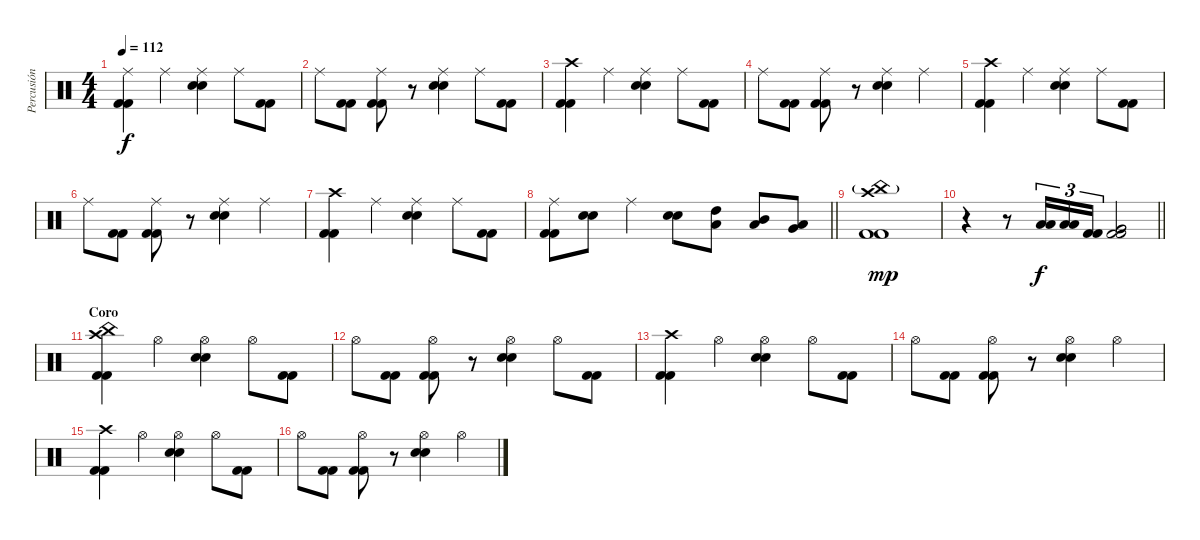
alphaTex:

\track ("Percusión" "Percusión") {instrument percussion}
\staff {score}
\articulation defaults
\ts (4 4)
\tempo 112
\clef neutral
\ks c
("Kick (hit) 2" "Ride (middle)" "Kick (hit) 2").4{dy f} "Ride (middle)".4 ("Ride (middle)" "Electric Snare (hit)" "Electric Snare (hit)").4 "Ride (middle)".8 ("Kick (hit) 2" "Kick (hit) 2").8 |
"Ride (middle)".8 ("Kick (hit) 2" "Kick (hit) 2").8 ("Kick (hit) 2" "Ride (middle)" "Kick (hit) 2").8 r.8 ("Electric Snare (hit)" "Electric Snare (hit)" "Ride (middle)").4 "Ride (middle)".8 ("Kick (hit) 2" "Kick (hit) 2").8 |
("Kick (hit) 2" "Crash high (hit)" "Kick (hit) 2").4 "Ride (middle)".4 ("Ride (middle)" "Electric Snare (hit)" "Electric Snare (hit)").4 "Ride (middle)".8 ("Kick (hit) 2" "Kick (hit) 2").8 |
"Ride (middle)".8 ("Kick (hit) 2" "Kick (hit) 2").8 ("Kick (hit) 2" "Ride (middle)" "Kick (hit) 2").8 r.8 ("Electric Snare (hit)" "Electric Snare (hit)" "Ride (middle)").4 "Ride (middle)".4 |
("Kick (hit) 2" "Crash high (hit)" "Kick (hit) 2").4 "Ride (middle)".4 ("Ride (middle)" "Electric Snare (hit)" "Electric Snare (hit)").4 "Ride (middle)".8 ("Kick (hit) 2" "Kick (hit) 2").8 |
"Ride (middle)".8 ("Kick (hit) 2" "Kick (hit) 2").8 ("Kick (hit) 2" "Ride (middle)" "Kick (hit) 2").8 r.8 ("Electric Snare (hit)" "Electric Snare (hit)" "Ride (middle)").4 "Ride (middle)".4 |
("Kick (hit) 2" "Crash high (hit)" "Kick (hit) 2").4 "Ride (middle)".4 ("Ride (middle)" "Electric Snare (hit)" "Electric Snare (hit)").4 "Ride (middle)".8 ("Kick (hit) 2" "Kick (hit) 2").8 |
\barLineRight lightlight
("Kick (hit) 2" "Ride (middle)" "Kick (hit) 2").8 ("Electric Snare (hit)" "Electric Snare (hit)").8 "Ride (middle)".4 ("Electric Snare (hit)" "Electric Snare (hit)").8 ("High Tom (hit)" "Low Tom (hit)").8 ("Mid Tom (hit)" "Low Tom (hit)").8 ("Low Tom (hit)" "Very Low Tom (hit)").8 |
("Kick (hit) 2" "China (hit)"{g} "Crash high (hit)" "Kick (hit) 2").1{dy mp} |
\barLineRight lightlight
r.4 r.8 ("Low Tom (hit)" "Low Tom (hit)").16{tu (3 2) dy f} ("Low Tom (hit)" "Low Tom (hit)").16{tu (3 2)} ("Kick (hit) 2" "Kick (hit) 2").16{tu (3 2)} ("Kick (hit) 2" "Very Low Tom (hit)" "Very Low Tom (hit)" "Kick (hit) 2").2 |
\section ("" "Coro")
("Kick (hit) 2" "China (hit)" "Crash high (hit)" "Kick (hit) 2").4 "Hi-Hat (open)".4 ("Hi-Hat (open)" "Electric Snare (hit)" "Electric Snare (hit)").4 "Hi-Hat (open)".8 ("Kick (hit) 2" "Kick (hit) 2").8 |
"Hi-Hat (open)".8 ("Kick (hit) 2" "Kick (hit) 2").8 ("Kick (hit) 2" "Hi-Hat (open)" "Kick (hit) 2").8 r.8 ("Electric Snare (hit)" "Electric Snare (hit)" "Hi-Hat (open)").4 "Hi-Hat (open)".8 ("Kick (hit) 2" "Kick (hit) 2").8 |
("Kick (hit) 2" "Crash high (hit)" "Kick (hit) 2").4 "Hi-Hat (open)".4 ("Hi-Hat (open)" "Electric Snare (hit)" "Electric Snare (hit)").4 "Hi-Hat (open)".8 ("Kick (hit) 2" "Kick (hit) 2").8 |
"Hi-Hat (open)".8 ("Kick (hit) 2" "Kick (hit) 2").8 ("Kick (hit) 2" "Hi-Hat (open)" "Kick (hit) 2").8 r.8 ("Electric Snare (hit)" "Electric Snare (hit)" "Hi-Hat (open)").4 "Hi-Hat (open)".4 |
("Kick (hit) 2" "Crash high (hit)" "Kick (hit) 2").4 "Hi-Hat (open)".4 ("Hi-Hat (open)" "Electric Snare (hit)" "Electric Snare (hit)").4 "Hi-Hat (open)".8 ("Kick (hit) 2" "Kick (hit) 2").8 |
"Hi-Hat (open)".8 ("Kick (hit) 2" "Kick (hit) 2").8 ("Kick (hit) 2" "Hi-Hat (open)" "Kick (hit) 2").8 r.8 ("Electric Snare (hit)" "Electric Snare (hit)" "Hi-Hat (open)").4 "Hi-Hat (open)".4
